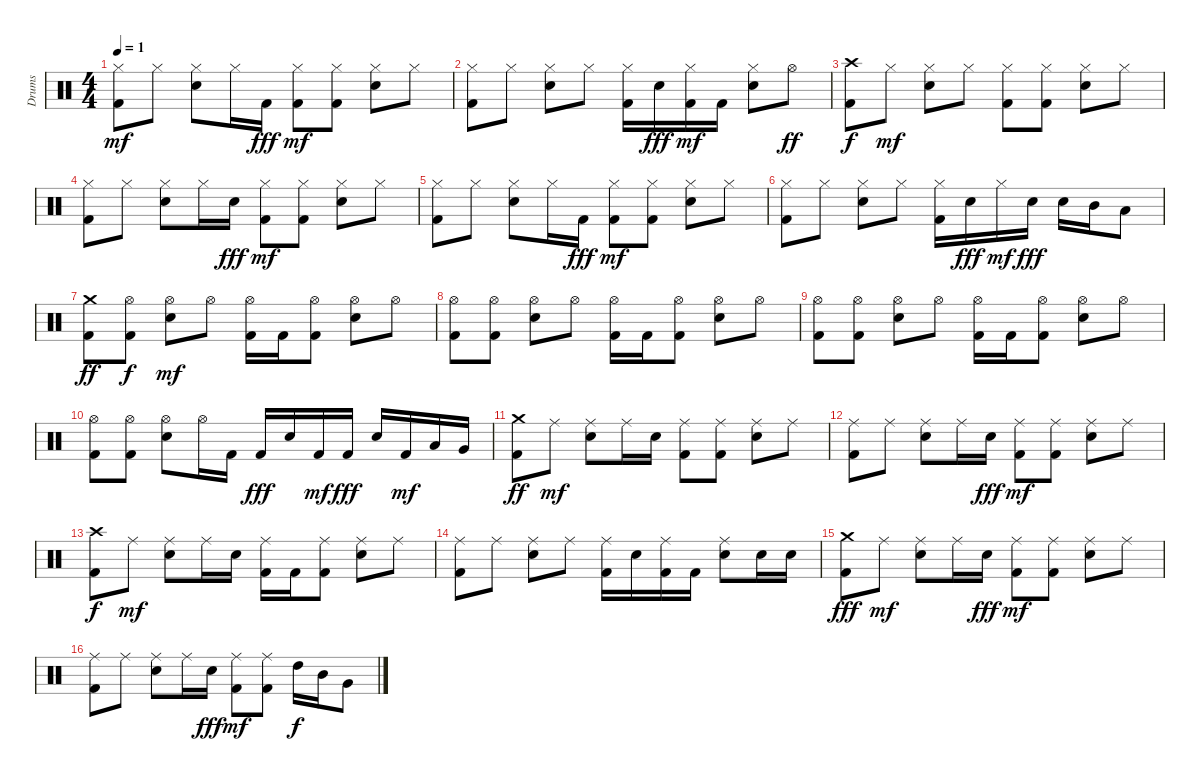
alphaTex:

\track ("Drums" "Drums") {instrument percussion}
\staff {score}
\articulation defaults
\ts (4 4)
\tempo 1
\clef neutral
\ks c
("Hi-Hat (closed)" "Kick (hit) 2").8{dy mf} "Hi-Hat (closed)".8 ("Hi-Hat (closed)" "Snare (hit) 2").8 "Hi-Hat (closed)".16 "Kick (hit) 2".16{dy fff} ("Hi-Hat (closed)" "Kick (hit) 2").8{dy mf} ("Hi-Hat (closed)" "Kick (hit) 2").8 ("Hi-Hat (closed)" "Snare (hit) 2").8 "Hi-Hat (closed)".8 |
("Hi-Hat (closed)" "Kick (hit) 2").8 "Hi-Hat (closed)".8 ("Hi-Hat (closed)" "Snare (hit) 2").8 "Hi-Hat (closed)".8 ("Hi-Hat (closed)" "Kick (hit) 2").16 "Snare (hit) 2".16{dy fff} ("Hi-Hat (closed)" "Kick (hit) 2").16{dy mf} "Kick (hit) 2".16 ("Hi-Hat (closed)" "Snare (hit) 2").8 "Hi-Hat (open)".8{dy ff} |
("Crash high (hit)" "Kick (hit) 2").8{dy f} "Hi-Hat (closed)".8{dy mf} ("Hi-Hat (closed)" "Snare (hit) 2").8 "Hi-Hat (closed)".8 ("Hi-Hat (closed)" "Kick (hit) 2").8 ("Hi-Hat (closed)" "Kick (hit) 2").8 ("Hi-Hat (closed)" "Snare (hit) 2").8 "Hi-Hat (closed)".8 |
("Hi-Hat (closed)" "Kick (hit) 2").8 "Hi-Hat (closed)".8 ("Hi-Hat (closed)" "Snare (hit) 2").8 "Hi-Hat (closed)".16 "Snare (hit) 2".16{dy fff} ("Hi-Hat (closed)" "Kick (hit) 2").8{dy mf} ("Hi-Hat (closed)" "Kick (hit) 2").8 ("Hi-Hat (closed)" "Snare (hit) 2").8 "Hi-Hat (closed)".8 |
("Hi-Hat (closed)" "Kick (hit) 2").8 "Hi-Hat (closed)".8 ("Hi-Hat (closed)" "Snare (hit) 2").8 "Hi-Hat (closed)".16 "Kick (hit) 2".16{dy fff} ("Hi-Hat (closed)" "Kick (hit) 2").8{dy mf} ("Hi-Hat (closed)" "Kick (hit) 2").8 ("Hi-Hat (closed)" "Snare (hit) 2").8 "Hi-Hat (closed)".8 |
("Hi-Hat (closed)" "Kick (hit) 2").8 "Hi-Hat (closed)".8 ("Hi-Hat (closed)" "Snare (hit) 2").8 "Hi-Hat (closed)".8 ("Hi-Hat (closed)" "Kick (hit) 2").16 "Snare (hit) 2".16{dy fff} "Hi-Hat (closed)".16{dy mf} "Snare (hit) 2".16{dy fff} "Snare (hit) 2".16 "Mid Tom (hit)".16 "Low Tom (hit)".8 |
("Crash medium (hit)" "Kick (hit) 2").8{dy ff} ("Hi-Hat (open)" "Kick (hit) 2").8{dy f} ("Hi-Hat (open)" "Snare (hit) 2").8{dy mf} "Hi-Hat (open)".8 ("Hi-Hat (open)" "Kick (hit) 2").16 "Kick (hit) 2".16 ("Hi-Hat (open)" "Kick (hit) 2").8 ("Hi-Hat (open)" "Snare (hit) 2").8 "Hi-Hat (open)".8 |
("Hi-Hat (open)" "Kick (hit) 2").8 ("Hi-Hat (open)" "Kick (hit) 2").8 ("Hi-Hat (open)" "Snare (hit) 2").8 "Hi-Hat (open)".8 ("Hi-Hat (open)" "Kick (hit) 2").16 "Kick (hit) 2".16 ("Hi-Hat (open)" "Kick (hit) 2").8 ("Hi-Hat (open)" "Snare (hit) 2").8 "Hi-Hat (open)".8 |
("Hi-Hat (open)" "Kick (hit) 2").8 ("Hi-Hat (open)" "Kick (hit) 2").8 ("Hi-Hat (open)" "Snare (hit) 2").8 "Hi-Hat (open)".8 ("Hi-Hat (open)" "Kick (hit) 2").16 "Kick (hit) 2".16 ("Hi-Hat (open)" "Kick (hit) 2").8 ("Hi-Hat (open)" "Snare (hit) 2").8 "Hi-Hat (open)".8 |
("Hi-Hat (open)" "Kick (hit) 2").8 ("Hi-Hat (open)" "Kick (hit) 2").8 ("Hi-Hat (open)" "Snare (hit) 2").8 "Hi-Hat (open)".16 "Kick (hit) 2".16 "Kick (hit) 2".16{dy fff} "Snare (hit) 2".16 "Kick (hit) 2".16{dy mf} "Kick (hit) 2".16{dy fff} "Snare (hit) 2".16 "Kick (hit) 2".16{dy mf} "Low Tom (hit)".16 "Very Low Tom (hit)".16 |
("Crash medium (hit)" "Kick (hit) 2").8{dy ff} "Ride (middle)".8{dy mf} ("Ride (middle)" "Snare (hit) 2").8 "Ride (middle)".16 "Snare (hit) 2".16 ("Ride (middle)" "Kick (hit) 2").8 ("Ride (middle)" "Kick (hit) 2").8 ("Ride (middle)" "Snare (hit) 2").8 "Ride (middle)".8 |
("Ride (middle)" "Kick (hit) 2").8 "Ride (middle)".8 ("Ride (middle)" "Snare (hit) 2").8 "Ride (middle)".16 "Snare (hit) 2".16{dy fff} ("Ride (middle)" "Kick (hit) 2").8{dy mf} ("Ride (middle)" "Kick (hit) 2").8 ("Ride (middle)" "Snare (hit) 2").8 "Ride (middle)".8 |
("Crash high (hit)" "Kick (hit) 2").8{dy f} "Ride (middle)".8{dy mf} ("Ride (middle)" "Snare (hit) 2").8 "Ride (middle)".16 "Snare (hit) 2".16 ("Ride (middle)" "Kick (hit) 2").16 "Kick (hit) 2".16 ("Ride (middle)" "Kick (hit) 2").8 ("Ride (middle)" "Snare (hit) 2").8 "Ride (middle)".8 |
("Ride (middle)" "Kick (hit) 2").8 "Ride (middle)".8 ("Ride (middle)" "Snare (hit) 2").8 "Ride (middle)".8 ("Ride (middle)" "Kick (hit) 2").16 "Snare (hit) 2".16 ("Ride (middle)" "Kick (hit) 2").16 "Kick (hit) 2".16 ("Ride (middle)" "Snare (hit) 2").8 "Snare (hit) 2".16 "Snare (hit) 2".16 |
("Crash medium (hit)" "Kick (hit) 2").8{dy fff} "Ride (middle)".8{dy mf} ("Ride (middle)" "Snare (hit) 2").8 "Ride (middle)".16 "Snare (hit) 2".16{dy fff} ("Ride (middle)" "Kick (hit) 2").8{dy mf} ("Ride (middle)" "Kick (hit) 2").8 ("Ride (middle)" "Snare (hit) 2").8 "Ride (middle)".8 |
("Ride (middle)" "Kick (hit) 2").8 "Ride (middle)".8 ("Ride (middle)" "Snare (hit) 2").8 "Ride (middle)".16 "Snare (hit) 2".16{dy fff} ("Ride (middle)" "Kick (hit) 2").8{dy mf} ("Ride (middle)" "Kick (hit) 2").8 "High Tom (hit)".16{dy f} "Mid Tom (hit)".16 "Very Low Tom (hit)".8
